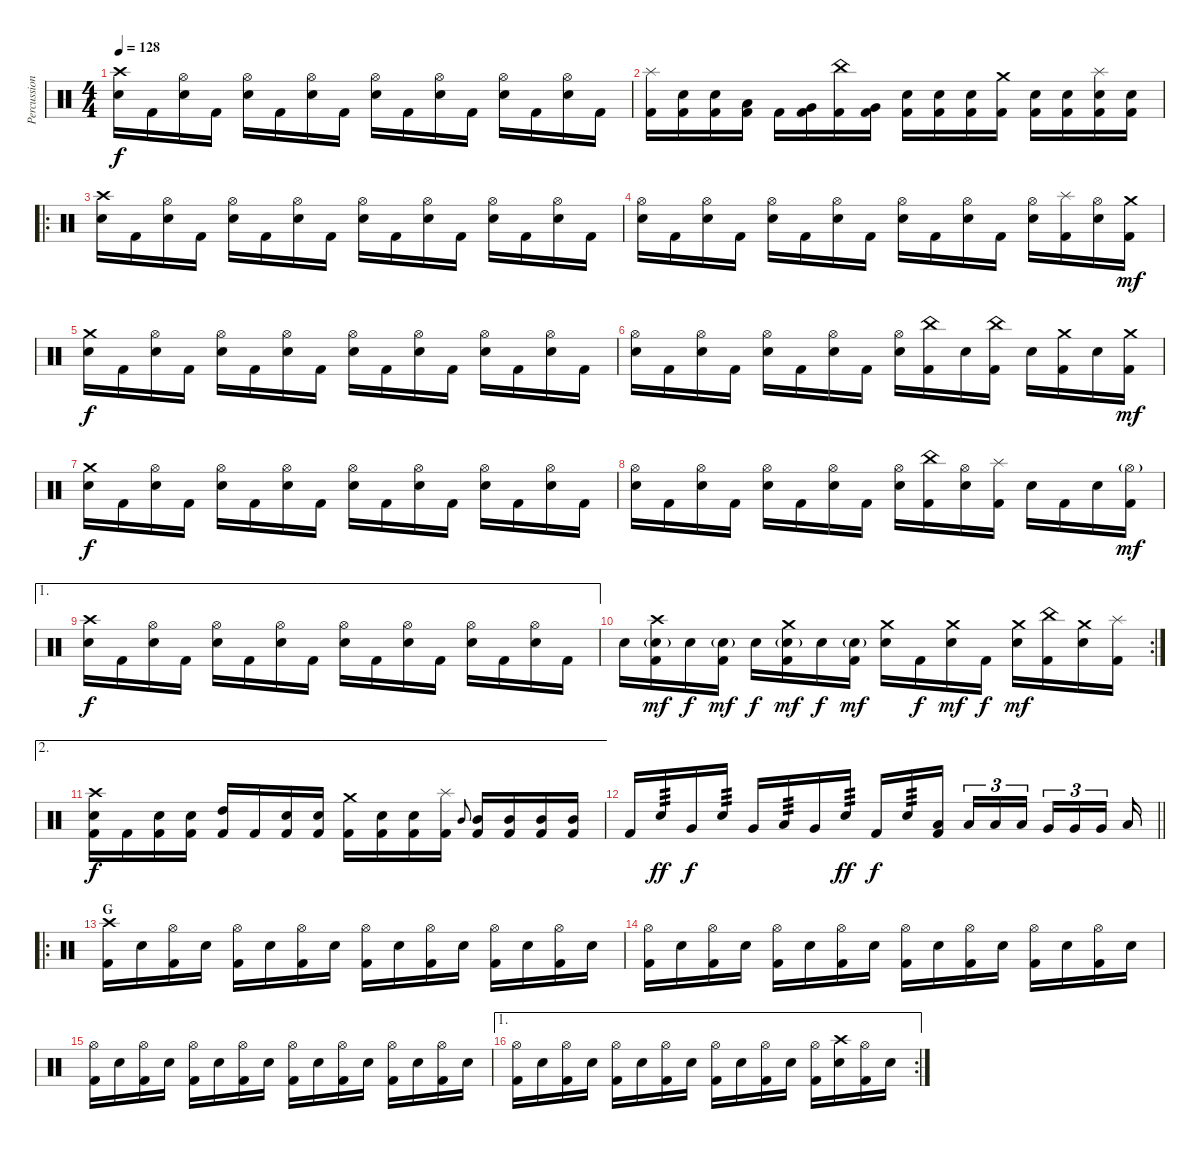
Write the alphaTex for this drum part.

\track ("Percussion" "Percussion") {instrument percussion}
\staff {score}
\articulation defaults
\ts (4 4)
\tempo 128
\clef neutral
\ks c
("Crash high (hit)" "Snare (hit) 2").16{dy f} "Kick (hit) 2".16 ("Hi-Hat (open)" "Snare (hit) 2").16 "Kick (hit) 2".16 ("Hi-Hat (open)" "Snare (hit) 2").16 "Kick (hit) 2".16 ("Hi-Hat (open)" "Snare (hit) 2").16 "Kick (hit) 2".16 ("Hi-Hat (open)" "Snare (hit) 2").16 "Kick (hit) 2".16 ("Hi-Hat (open)" "Snare (hit) 2").16 "Kick (hit) 2".16 ("Hi-Hat (open)" "Snare (hit) 2").16 "Kick (hit) 2".16 ("Hi-Hat (open)" "Snare (hit) 2").16 "Kick (hit) 2".16 |
("Splash (hit)" "Kick (hit) 2").16 ("Snare (hit) 2" "Kick (hit) 2").16 ("Snare (hit) 2" "Kick (hit) 2").16 ("Low Tom (hit)" "Kick (hit) 2").16 "Kick (hit) 2".16 ("Very Low Tom (hit)" "Kick (hit) 2").16 ("China (hit)" "Kick (hit) 2").16 ("Very Low Tom (hit)" "Kick (hit) 2").16 ("Snare (hit) 2" "Kick (hit) 2").16 ("Snare (hit) 2" "Kick (hit) 2").16 ("Snare (hit) 2" "Kick (hit) 2").16 ("Crash medium (hit)" "Kick (hit) 2").16 ("Snare (hit) 2" "Kick (hit) 2").16 ("Snare (hit) 2" "Kick (hit) 2").16 ("Splash (hit)" "Snare (hit) 2" "Kick (hit) 2").16 ("Snare (hit) 2" "Kick (hit) 2").16 |
\ro
("Crash high (hit)" "Snare (hit) 2").16 "Kick (hit) 2".16 ("Hi-Hat (open)" "Snare (hit) 2").16 "Kick (hit) 2".16 ("Hi-Hat (open)" "Snare (hit) 2").16 "Kick (hit) 2".16 ("Hi-Hat (open)" "Snare (hit) 2").16 "Kick (hit) 2".16 ("Hi-Hat (open)" "Snare (hit) 2").16 "Kick (hit) 2".16 ("Hi-Hat (open)" "Snare (hit) 2").16 "Kick (hit) 2".16 ("Hi-Hat (open)" "Snare (hit) 2").16 "Kick (hit) 2".16 ("Hi-Hat (open)" "Snare (hit) 2").16 "Kick (hit) 2".16 |
("Hi-Hat (open)" "Snare (hit) 2").16 "Kick (hit) 2".16 ("Hi-Hat (open)" "Snare (hit) 2").16 "Kick (hit) 2".16 ("Hi-Hat (open)" "Snare (hit) 2").16 "Kick (hit) 2".16 ("Hi-Hat (open)" "Snare (hit) 2").16 "Kick (hit) 2".16 ("Hi-Hat (open)" "Snare (hit) 2").16 "Kick (hit) 2".16 ("Hi-Hat (open)" "Snare (hit) 2").16 "Kick (hit) 2".16 ("Hi-Hat (open)" "Snare (hit) 2").16 ("Splash (hit)" "Kick (hit) 2").16 ("Hi-Hat (open)" "Snare (hit) 2").16 ("Crash medium (hit)" "Kick (hit) 2").16{dy mf} |
("Crash medium (hit)" "Snare (hit) 2").16{dy f} "Kick (hit) 2".16 ("Hi-Hat (open)" "Snare (hit) 2").16 "Kick (hit) 2".16 ("Hi-Hat (open)" "Snare (hit) 2").16 "Kick (hit) 2".16 ("Hi-Hat (open)" "Snare (hit) 2").16 "Kick (hit) 2".16 ("Hi-Hat (open)" "Snare (hit) 2").16 "Kick (hit) 2".16 ("Hi-Hat (open)" "Snare (hit) 2").16 "Kick (hit) 2".16 ("Hi-Hat (open)" "Snare (hit) 2").16 "Kick (hit) 2".16 ("Hi-Hat (open)" "Snare (hit) 2").16 "Kick (hit) 2".16 |
("Hi-Hat (open)" "Snare (hit) 2").16 "Kick (hit) 2".16 ("Hi-Hat (open)" "Snare (hit) 2").16 "Kick (hit) 2".16 ("Hi-Hat (open)" "Snare (hit) 2").16 "Kick (hit) 2".16 ("Hi-Hat (open)" "Snare (hit) 2").16 "Kick (hit) 2".16 ("Hi-Hat (open)" "Snare (hit) 2").16 ("China (hit)" "Kick (hit) 2").16 "Snare (hit) 2".16 ("China (hit)" "Kick (hit) 2").16 "Snare (hit) 2".16 ("Crash medium (hit)" "Kick (hit) 2").16 "Snare (hit) 2".16 ("Crash medium (hit)" "Kick (hit) 2").16{dy mf} |
("Crash medium (hit)" "Snare (hit) 2").16{dy f} "Kick (hit) 2".16 ("Hi-Hat (open)" "Snare (hit) 2").16 "Kick (hit) 2".16 ("Hi-Hat (open)" "Snare (hit) 2").16 "Kick (hit) 2".16 ("Hi-Hat (open)" "Snare (hit) 2").16 "Kick (hit) 2".16 ("Hi-Hat (open)" "Snare (hit) 2").16 "Kick (hit) 2".16 ("Hi-Hat (open)" "Snare (hit) 2").16 "Kick (hit) 2".16 ("Hi-Hat (open)" "Snare (hit) 2").16 "Kick (hit) 2".16 ("Hi-Hat (open)" "Snare (hit) 2").16 "Kick (hit) 2".16 |
("Hi-Hat (open)" "Snare (hit) 2").16 "Kick (hit) 2".16 ("Hi-Hat (open)" "Snare (hit) 2").16 "Kick (hit) 2".16 ("Hi-Hat (open)" "Snare (hit) 2").16 "Kick (hit) 2".16 ("Hi-Hat (open)" "Snare (hit) 2").16 "Kick (hit) 2".16 ("Hi-Hat (open)" "Snare (hit) 2").16 ("China (hit)" "Kick (hit) 2").16 ("Hi-Hat (open)" "Snare (hit) 2").16 ("Splash (hit)" "Kick (hit) 2").16 "Snare (hit) 2".16 "Kick (hit) 2".16 "Snare (hit) 2".16 ("Hi-Hat (open)"{g} "Kick (hit) 2").16{dy mf} |
\ae 1
("Crash high (hit)" "Snare (hit) 2").16{dy f} "Kick (hit) 2".16 ("Hi-Hat (open)" "Snare (hit) 2").16 "Kick (hit) 2".16 ("Hi-Hat (open)" "Snare (hit) 2").16 "Kick (hit) 2".16 ("Hi-Hat (open)" "Snare (hit) 2").16 "Kick (hit) 2".16 ("Hi-Hat (open)" "Snare (hit) 2").16 "Kick (hit) 2".16 ("Hi-Hat (open)" "Snare (hit) 2").16 "Kick (hit) 2".16 ("Hi-Hat (open)" "Snare (hit) 2").16 "Kick (hit) 2".16 ("Hi-Hat (open)" "Snare (hit) 2").16 "Kick (hit) 2".16 |
\rc 2 "Snare (hit) 2".16
("Crash high (hit)" "Snare (hit) 2"{g} "Kick (hit) 2").16{dy mf} "Snare (hit) 2".16{dy f} ("Snare (hit) 2"{g} "Kick (hit) 2").16{dy mf} "Snare (hit) 2".16{dy f} ("Crash medium (hit)" "Snare (hit) 2"{g} "Kick (hit) 2").16{dy mf} "Snare (hit) 2".16{dy f} ("Snare (hit) 2"{g} "Kick (hit) 2").16{dy mf} ("Crash medium (hit)" "Snare (hit) 2").16 "Kick (hit) 2".16{dy f} ("Crash medium (hit)" "Snare (hit) 2").16{dy mf} "Kick (hit) 2".16{dy f} ("Crash medium (hit)" "Snare (hit) 2").16{dy mf} ("China (hit)" "Kick (hit) 2").16 ("Crash medium (hit)" "Snare (hit) 2").16 ("Splash (hit)" "Kick (hit) 2").16 |
\ae 2
("Crash high (hit)" "Snare (hit) 2" "Kick (hit) 2").16{dy f} "Kick (hit) 2".16 ("Snare (hit) 2" "Kick (hit) 2").16 ("Snare (hit) 2" "Kick (hit) 2").16 ("High Tom (hit)" "Kick (hit) 2").16 "Kick (hit) 2".16 ("Snare (hit) 2" "Kick (hit) 2").16 ("Snare (hit) 2" "Kick (hit) 2").16 ("Crash medium (hit)" "Kick (hit) 2").16 ("Snare (hit) 2" "Kick (hit) 2").16 ("Snare (hit) 2" "Kick (hit) 2").16 ("Splash (hit)" "Kick (hit) 2").16 "Mid Tom (hit)".8{gr onbeat} ("Mid Tom (hit)" "Kick (hit) 2").16 ("Mid Tom (hit)" "Kick (hit) 2").16 ("Mid Tom (hit)" "Kick (hit) 2").16 ("Mid Tom (hit)" "Kick (hit) 2").16 |
\barLineRight lightlight "Kick (hit) 2".16 "Snare (hit) 2".16{tp 3 dy ff} "Very Low Tom (hit)".16{dy f} "Snare (hit) 2".16{tp 3} "Very Low Tom (hit)".16 "Low Tom (hit)".16{tp 3} "Very Low Tom (hit)".16 "Snare (hit) 2".16{tp 3 dy ff} "Kick (hit) 2".16{dy f} "Snare (hit) 2".16{tp 3}
("Low Tom (hit)" "Kick (hit) 2").16{beam splitsecondary} "Low Tom (hit)".16{tu (3 2)} "Low Tom (hit)".16{tu (3 2)} "Low Tom (hit)".16{tu (3 2) beam splitsecondary} "Very Low Tom (hit)".16{tu (3 2)} "Very Low Tom (hit)".16{tu (3 2)} "Very Low Tom (hit)".16{tu (3 2) beam splitsecondary} "Low Floor Tom (hit)".16 |
\ro
\section ("" "G")
("Crash high (hit)" "Kick (hit) 2").16 "Snare (hit) 2".16 ("Hi-Hat (open)" "Kick (hit) 2").16 "Snare (hit) 2".16 ("Hi-Hat (open)" "Kick (hit) 2").16 "Snare (hit) 2".16 ("Hi-Hat (open)" "Kick (hit) 2").16 "Snare (hit) 2".16 ("Hi-Hat (open)" "Kick (hit) 2").16 "Snare (hit) 2".16 ("Hi-Hat (open)" "Kick (hit) 2").16 "Snare (hit) 2".16 ("Hi-Hat (open)" "Kick (hit) 2").16 "Snare (hit) 2".16 ("Hi-Hat (open)" "Kick (hit) 2").16 "Snare (hit) 2".16 |
("Hi-Hat (open)" "Kick (hit) 2").16 "Snare (hit) 2".16 ("Hi-Hat (open)" "Kick (hit) 2").16 "Snare (hit) 2".16 ("Hi-Hat (open)" "Kick (hit) 2").16 "Snare (hit) 2".16 ("Hi-Hat (open)" "Kick (hit) 2").16 "Snare (hit) 2".16 ("Hi-Hat (open)" "Kick (hit) 2").16 "Snare (hit) 2".16 ("Hi-Hat (open)" "Kick (hit) 2").16 "Snare (hit) 2".16 ("Hi-Hat (open)" "Kick (hit) 2").16 "Snare (hit) 2".16 ("Hi-Hat (open)" "Kick (hit) 2").16 "Snare (hit) 2".16 |
("Hi-Hat (open)" "Kick (hit) 2").16 "Snare (hit) 2".16 ("Hi-Hat (open)" "Kick (hit) 2").16 "Snare (hit) 2".16 ("Hi-Hat (open)" "Kick (hit) 2").16 "Snare (hit) 2".16 ("Hi-Hat (open)" "Kick (hit) 2").16 "Snare (hit) 2".16 ("Hi-Hat (open)" "Kick (hit) 2").16 "Snare (hit) 2".16 ("Hi-Hat (open)" "Kick (hit) 2").16 "Snare (hit) 2".16 ("Hi-Hat (open)" "Kick (hit) 2").16 "Snare (hit) 2".16 ("Hi-Hat (open)" "Kick (hit) 2").16 "Snare (hit) 2".16 |
\ae 1
\rc 2
("Hi-Hat (open)" "Kick (hit) 2").16 "Snare (hit) 2".16 ("Hi-Hat (open)" "Kick (hit) 2").16 "Snare (hit) 2".16 ("Hi-Hat (open)" "Kick (hit) 2").16 "Snare (hit) 2".16 ("Hi-Hat (open)" "Kick (hit) 2").16 "Snare (hit) 2".16 ("Hi-Hat (open)" "Kick (hit) 2").16 "Snare (hit) 2".16 ("Hi-Hat (open)" "Kick (hit) 2").16 "Snare (hit) 2".16 ("Hi-Hat (open)" "Kick (hit) 2").16 ("Crash high (hit)" "Snare (hit) 2").16 ("Hi-Hat (open)" "Kick (hit) 2").16 "Snare (hit) 2".16
